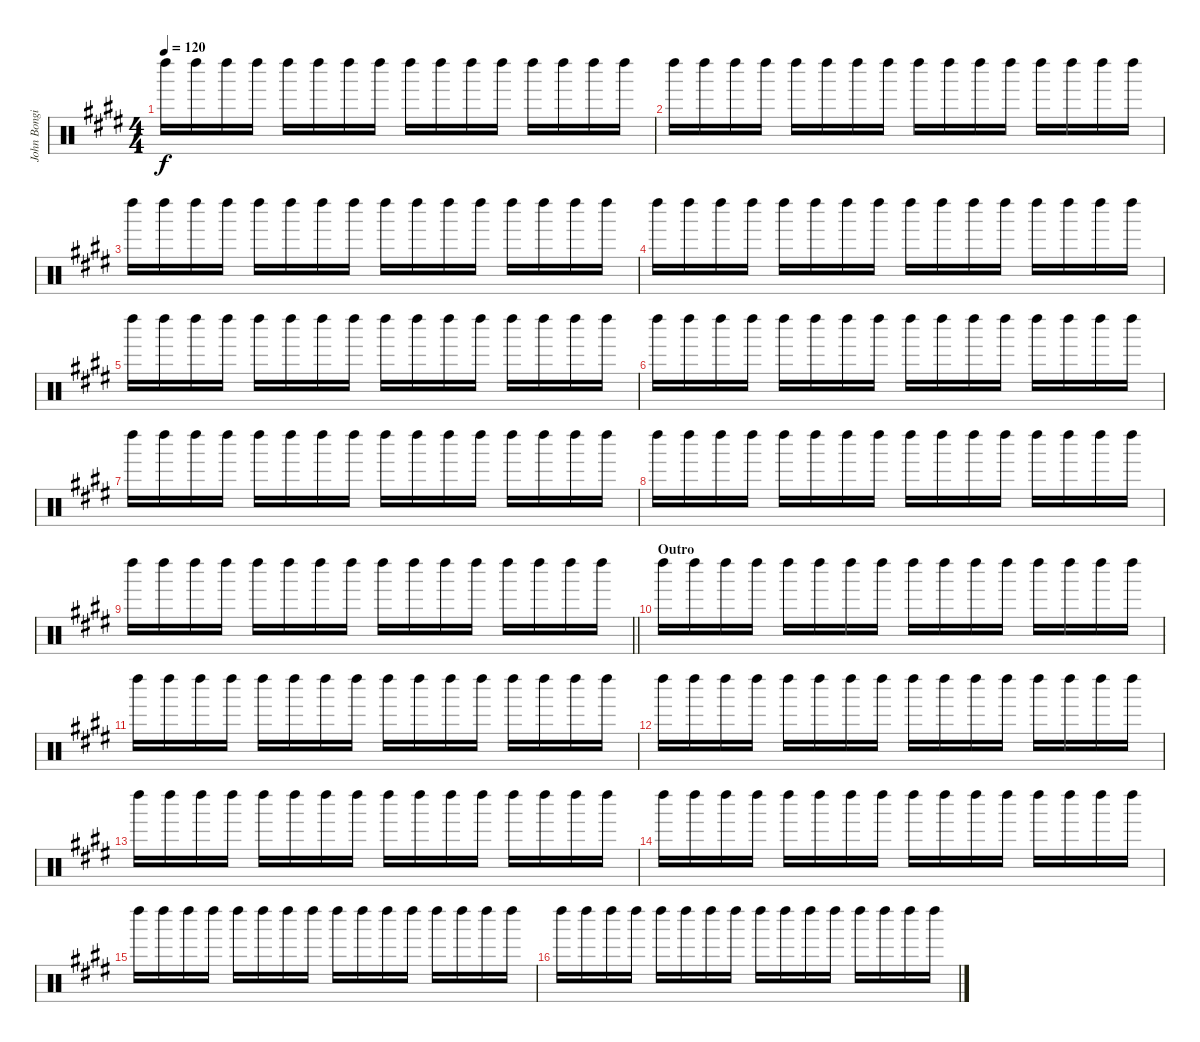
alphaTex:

\track ("John Bongiovi (Maracas)" "John Bongi") {instrument percussion}
\staff {score}
\articulation defaults
\ts (4 4)
\tempo 120
\clef neutral
\ks c#minor "Left Maraca (hit)".16{dy f} "Left Maraca (hit)".16 "Left Maraca (hit)".16 "Left Maraca (hit)".16 "Left Maraca (hit)".16 "Left Maraca (hit)".16 "Left Maraca (hit)".16 "Left Maraca (hit)".16 "Left Maraca (hit)".16 "Left Maraca (hit)".16 "Left Maraca (hit)".16 "Left Maraca (hit)".16 "Left Maraca (hit)".16 "Left Maraca (hit)".16 "Left Maraca (hit)".16 "Left Maraca (hit)".16
|
"Left Maraca (hit)".16 "Left Maraca (hit)".16 "Left Maraca (hit)".16 "Left Maraca (hit)".16 "Left Maraca (hit)".16 "Left Maraca (hit)".16 "Left Maraca (hit)".16 "Left Maraca (hit)".16 "Left Maraca (hit)".16 "Left Maraca (hit)".16 "Left Maraca (hit)".16 "Left Maraca (hit)".16 "Left Maraca (hit)".16 "Left Maraca (hit)".16 "Left Maraca (hit)".16 "Left Maraca (hit)".16 |
"Left Maraca (hit)".16 "Left Maraca (hit)".16 "Left Maraca (hit)".16 "Left Maraca (hit)".16 "Left Maraca (hit)".16 "Left Maraca (hit)".16 "Left Maraca (hit)".16 "Left Maraca (hit)".16 "Left Maraca (hit)".16 "Left Maraca (hit)".16 "Left Maraca (hit)".16 "Left Maraca (hit)".16 "Left Maraca (hit)".16 "Left Maraca (hit)".16 "Left Maraca (hit)".16 "Left Maraca (hit)".16 |
"Left Maraca (hit)".16 "Left Maraca (hit)".16 "Left Maraca (hit)".16 "Left Maraca (hit)".16 "Left Maraca (hit)".16 "Left Maraca (hit)".16 "Left Maraca (hit)".16 "Left Maraca (hit)".16 "Left Maraca (hit)".16 "Left Maraca (hit)".16 "Left Maraca (hit)".16 "Left Maraca (hit)".16 "Left Maraca (hit)".16 "Left Maraca (hit)".16 "Left Maraca (hit)".16 "Left Maraca (hit)".16 |
"Left Maraca (hit)".16 "Left Maraca (hit)".16 "Left Maraca (hit)".16 "Left Maraca (hit)".16 "Left Maraca (hit)".16 "Left Maraca (hit)".16 "Left Maraca (hit)".16 "Left Maraca (hit)".16 "Left Maraca (hit)".16 "Left Maraca (hit)".16 "Left Maraca (hit)".16 "Left Maraca (hit)".16 "Left Maraca (hit)".16 "Left Maraca (hit)".16 "Left Maraca (hit)".16 "Left Maraca (hit)".16 |
"Left Maraca (hit)".16 "Left Maraca (hit)".16 "Left Maraca (hit)".16 "Left Maraca (hit)".16 "Left Maraca (hit)".16 "Left Maraca (hit)".16 "Left Maraca (hit)".16 "Left Maraca (hit)".16 "Left Maraca (hit)".16 "Left Maraca (hit)".16 "Left Maraca (hit)".16 "Left Maraca (hit)".16 "Left Maraca (hit)".16 "Left Maraca (hit)".16 "Left Maraca (hit)".16 "Left Maraca (hit)".16 |
"Left Maraca (hit)".16 "Left Maraca (hit)".16 "Left Maraca (hit)".16 "Left Maraca (hit)".16 "Left Maraca (hit)".16 "Left Maraca (hit)".16 "Left Maraca (hit)".16 "Left Maraca (hit)".16 "Left Maraca (hit)".16 "Left Maraca (hit)".16 "Left Maraca (hit)".16 "Left Maraca (hit)".16 "Left Maraca (hit)".16 "Left Maraca (hit)".16 "Left Maraca (hit)".16 "Left Maraca (hit)".16 |
"Left Maraca (hit)".16 "Left Maraca (hit)".16 "Left Maraca (hit)".16 "Left Maraca (hit)".16 "Left Maraca (hit)".16 "Left Maraca (hit)".16 "Left Maraca (hit)".16 "Left Maraca (hit)".16 "Left Maraca (hit)".16 "Left Maraca (hit)".16 "Left Maraca (hit)".16 "Left Maraca (hit)".16 "Left Maraca (hit)".16 "Left Maraca (hit)".16 "Left Maraca (hit)".16 "Left Maraca (hit)".16 |
\barLineRight lightlight "Left Maraca (hit)".16 "Left Maraca (hit)".16 "Left Maraca (hit)".16 "Left Maraca (hit)".16 "Left Maraca (hit)".16 "Left Maraca (hit)".16 "Left Maraca (hit)".16 "Left Maraca (hit)".16 "Left Maraca (hit)".16 "Left Maraca (hit)".16 "Left Maraca (hit)".16 "Left Maraca (hit)".16 "Left Maraca (hit)".16 "Left Maraca (hit)".16 "Left Maraca (hit)".16 "Left Maraca (hit)".16
|
\section ("" "Outro")
"Left Maraca (hit)".16 "Left Maraca (hit)".16 "Left Maraca (hit)".16 "Left Maraca (hit)".16 "Left Maraca (hit)".16 "Left Maraca (hit)".16 "Left Maraca (hit)".16 "Left Maraca (hit)".16 "Left Maraca (hit)".16 "Left Maraca (hit)".16 "Left Maraca (hit)".16 "Left Maraca (hit)".16 "Left Maraca (hit)".16 "Left Maraca (hit)".16 "Left Maraca (hit)".16 "Left Maraca (hit)".16 |
"Left Maraca (hit)".16 "Left Maraca (hit)".16 "Left Maraca (hit)".16 "Left Maraca (hit)".16 "Left Maraca (hit)".16 "Left Maraca (hit)".16 "Left Maraca (hit)".16 "Left Maraca (hit)".16 "Left Maraca (hit)".16 "Left Maraca (hit)".16 "Left Maraca (hit)".16 "Left Maraca (hit)".16 "Left Maraca (hit)".16 "Left Maraca (hit)".16 "Left Maraca (hit)".16 "Left Maraca (hit)".16 |
"Left Maraca (hit)".16 "Left Maraca (hit)".16 "Left Maraca (hit)".16 "Left Maraca (hit)".16 "Left Maraca (hit)".16 "Left Maraca (hit)".16 "Left Maraca (hit)".16 "Left Maraca (hit)".16 "Left Maraca (hit)".16 "Left Maraca (hit)".16 "Left Maraca (hit)".16 "Left Maraca (hit)".16 "Left Maraca (hit)".16 "Left Maraca (hit)".16 "Left Maraca (hit)".16 "Left Maraca (hit)".16 |
"Left Maraca (hit)".16 "Left Maraca (hit)".16 "Left Maraca (hit)".16 "Left Maraca (hit)".16 "Left Maraca (hit)".16 "Left Maraca (hit)".16 "Left Maraca (hit)".16 "Left Maraca (hit)".16 "Left Maraca (hit)".16 "Left Maraca (hit)".16 "Left Maraca (hit)".16 "Left Maraca (hit)".16 "Left Maraca (hit)".16 "Left Maraca (hit)".16 "Left Maraca (hit)".16 "Left Maraca (hit)".16 |
"Left Maraca (hit)".16 "Left Maraca (hit)".16 "Left Maraca (hit)".16 "Left Maraca (hit)".16 "Left Maraca (hit)".16 "Left Maraca (hit)".16 "Left Maraca (hit)".16 "Left Maraca (hit)".16 "Left Maraca (hit)".16 "Left Maraca (hit)".16 "Left Maraca (hit)".16 "Left Maraca (hit)".16 "Left Maraca (hit)".16 "Left Maraca (hit)".16 "Left Maraca (hit)".16 "Left Maraca (hit)".16 |
"Left Maraca (hit)".16 "Left Maraca (hit)".16 "Left Maraca (hit)".16 "Left Maraca (hit)".16 "Left Maraca (hit)".16 "Left Maraca (hit)".16 "Left Maraca (hit)".16 "Left Maraca (hit)".16 "Left Maraca (hit)".16 "Left Maraca (hit)".16 "Left Maraca (hit)".16 "Left Maraca (hit)".16 "Left Maraca (hit)".16 "Left Maraca (hit)".16 "Left Maraca (hit)".16 "Left Maraca (hit)".16 |
"Left Maraca (hit)".16 "Left Maraca (hit)".16 "Left Maraca (hit)".16 "Left Maraca (hit)".16 "Left Maraca (hit)".16 "Left Maraca (hit)".16 "Left Maraca (hit)".16 "Left Maraca (hit)".16 "Left Maraca (hit)".16 "Left Maraca (hit)".16 "Left Maraca (hit)".16 "Left Maraca (hit)".16 "Left Maraca (hit)".16 "Left Maraca (hit)".16 "Left Maraca (hit)".16 "Left Maraca (hit)".16
